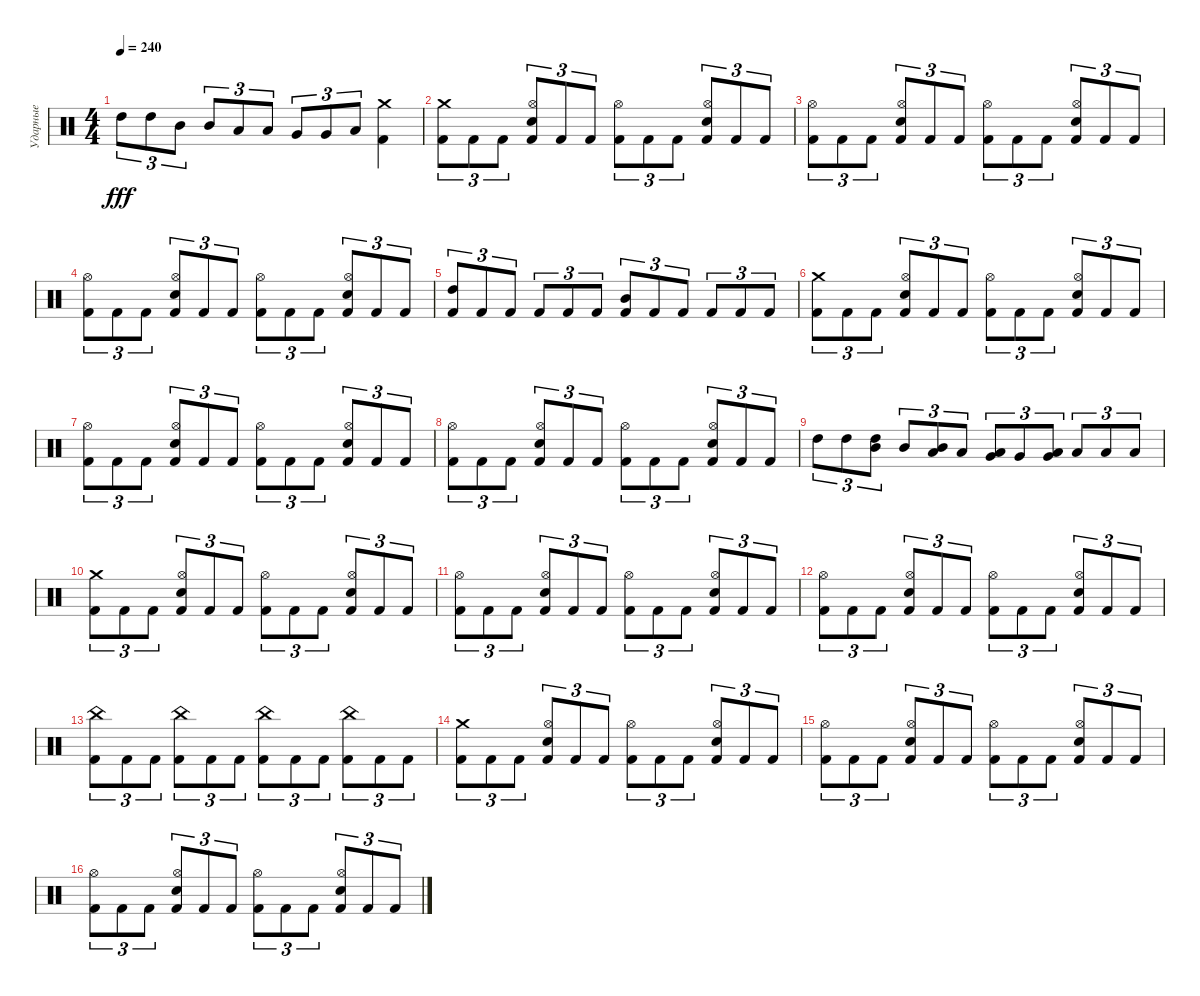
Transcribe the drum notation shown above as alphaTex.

\track ("Ударные" "Ударные") {instrument percussion}
\staff {score}
\articulation defaults
\ts (4 4)
\tempo 240
\clef neutral
\ks aminor "High Tom (hit)".8{tu (3 2) dy fff} "High Tom (hit)".8{tu (3 2)} "Mid Tom (hit)".8{tu (3 2)} "Mid Tom (hit)".8{tu (3 2)} "Low Tom (hit)".8{tu (3 2)} "Low Tom (hit)".8{tu (3 2)} "Very Low Tom (hit)".8{tu (3 2)} "Very Low Tom (hit)".8{tu (3 2)} "Low Floor Tom (hit)".8{tu (3 2)}
("Crash medium (hit)" "Kick (hit) 2").4 |
\ks c
("Crash medium (hit)" "Kick (hit) 2").8{tu (3 2)} "Kick (hit) 2".8{tu (3 2)} "Kick (hit) 2".8{tu (3 2)} ("Hi-Hat (open)" "Electric Snare (hit)" "Kick (hit) 2").8{tu (3 2)} "Kick (hit) 2".8{tu (3 2)} "Kick (hit) 2".8{tu (3 2)} ("Hi-Hat (open)" "Kick (hit) 2").8{tu (3 2)} "Kick (hit) 2".8{tu (3 2)} "Kick (hit) 2".8{tu (3 2)} ("Hi-Hat (open)" "Electric Snare (hit)" "Kick (hit) 2").8{tu (3 2)} "Kick (hit) 2".8{tu (3 2)} "Kick (hit) 2".8{tu (3 2)} |
("Hi-Hat (open)" "Kick (hit) 2").8{tu (3 2)} "Kick (hit) 2".8{tu (3 2)} "Kick (hit) 2".8{tu (3 2)} ("Hi-Hat (open)" "Electric Snare (hit)" "Kick (hit) 2").8{tu (3 2)} "Kick (hit) 2".8{tu (3 2)} "Kick (hit) 2".8{tu (3 2)} ("Hi-Hat (open)" "Kick (hit) 2").8{tu (3 2)} "Kick (hit) 2".8{tu (3 2)} "Kick (hit) 2".8{tu (3 2)} ("Hi-Hat (open)" "Electric Snare (hit)" "Kick (hit) 2").8{tu (3 2)} "Kick (hit) 2".8{tu (3 2)} "Kick (hit) 2".8{tu (3 2)} |
\ks aminor
("Hi-Hat (open)" "Kick (hit) 2").8{tu (3 2)} "Kick (hit) 2".8{tu (3 2)} "Kick (hit) 2".8{tu (3 2)} ("Hi-Hat (open)" "Electric Snare (hit)" "Kick (hit) 2").8{tu (3 2)} "Kick (hit) 2".8{tu (3 2)} "Kick (hit) 2".8{tu (3 2)} ("Hi-Hat (open)" "Kick (hit) 2").8{tu (3 2)} "Kick (hit) 2".8{tu (3 2)} "Kick (hit) 2".8{tu (3 2)} ("Hi-Hat (open)" "Electric Snare (hit)" "Kick (hit) 2").8{tu (3 2)} "Kick (hit) 2".8{tu (3 2)} "Kick (hit) 2".8{tu (3 2)} |
("High Tom (hit)" "Kick (hit) 2").8{tu (3 2)} "Kick (hit) 2".8{tu (3 2)} "Kick (hit) 2".8{tu (3 2)} "Kick (hit) 2".8{tu (3 2)} "Kick (hit) 2".8{tu (3 2)} "Kick (hit) 2".8{tu (3 2)} ("Mid Tom (hit)" "Kick (hit) 2").8{tu (3 2)} "Kick (hit) 2".8{tu (3 2)} "Kick (hit) 2".8{tu (3 2)} "Kick (hit) 2".8{tu (3 2)} "Kick (hit) 2".8{tu (3 2)} "Kick (hit) 2".8{tu (3 2)} |
\ks c
("Crash medium (hit)" "Kick (hit) 2").8{tu (3 2)} "Kick (hit) 2".8{tu (3 2)} "Kick (hit) 2".8{tu (3 2)} ("Hi-Hat (open)" "Electric Snare (hit)" "Kick (hit) 2").8{tu (3 2)} "Kick (hit) 2".8{tu (3 2)} "Kick (hit) 2".8{tu (3 2)} ("Hi-Hat (open)" "Kick (hit) 2").8{tu (3 2)} "Kick (hit) 2".8{tu (3 2)} "Kick (hit) 2".8{tu (3 2)} ("Hi-Hat (open)" "Electric Snare (hit)" "Kick (hit) 2").8{tu (3 2)} "Kick (hit) 2".8{tu (3 2)} "Kick (hit) 2".8{tu (3 2)} |
("Hi-Hat (open)" "Kick (hit) 2").8{tu (3 2)} "Kick (hit) 2".8{tu (3 2)} "Kick (hit) 2".8{tu (3 2)} ("Hi-Hat (open)" "Electric Snare (hit)" "Kick (hit) 2").8{tu (3 2)} "Kick (hit) 2".8{tu (3 2)} "Kick (hit) 2".8{tu (3 2)} ("Hi-Hat (open)" "Kick (hit) 2").8{tu (3 2)} "Kick (hit) 2".8{tu (3 2)} "Kick (hit) 2".8{tu (3 2)} ("Hi-Hat (open)" "Electric Snare (hit)" "Kick (hit) 2").8{tu (3 2)} "Kick (hit) 2".8{tu (3 2)} "Kick (hit) 2".8{tu (3 2)} |
\ks aminor
("Hi-Hat (open)" "Kick (hit) 2").8{tu (3 2)} "Kick (hit) 2".8{tu (3 2)} "Kick (hit) 2".8{tu (3 2)} ("Hi-Hat (open)" "Electric Snare (hit)" "Kick (hit) 2").8{tu (3 2)} "Kick (hit) 2".8{tu (3 2)} "Kick (hit) 2".8{tu (3 2)} ("Hi-Hat (open)" "Kick (hit) 2").8{tu (3 2)} "Kick (hit) 2".8{tu (3 2)} "Kick (hit) 2".8{tu (3 2)} ("Hi-Hat (open)" "Electric Snare (hit)" "Kick (hit) 2").8{tu (3 2)} "Kick (hit) 2".8{tu (3 2)} "Kick (hit) 2".8{tu (3 2)} |
"High Tom (hit)".8{tu (3 2)} "High Tom (hit)".8{tu (3 2)} ("Mid Tom (hit)" "High Tom (hit)").8{tu (3 2)} "Mid Tom (hit)".8{tu (3 2)} ("Low Tom (hit)" "Mid Tom (hit)").8{tu (3 2)} "Low Tom (hit)".8{tu (3 2)} ("Very Low Tom (hit)" "Low Tom (hit)").8{tu (3 2)} "Very Low Tom (hit)".8{tu (3 2)} ("Low Floor Tom (hit)" "Very Low Tom (hit)").8{tu (3 2)} "Low Floor Tom (hit)".8{tu (3 2)} "Low Floor Tom (hit)".8{tu (3 2)} "Low Floor Tom (hit)".8{tu (3 2)} |
\ks c
("Crash medium (hit)" "Kick (hit) 2").8{tu (3 2)} "Kick (hit) 2".8{tu (3 2)} "Kick (hit) 2".8{tu (3 2)} ("Hi-Hat (open)" "Electric Snare (hit)" "Kick (hit) 2").8{tu (3 2)} "Kick (hit) 2".8{tu (3 2)} "Kick (hit) 2".8{tu (3 2)} ("Hi-Hat (open)" "Kick (hit) 2").8{tu (3 2)} "Kick (hit) 2".8{tu (3 2)} "Kick (hit) 2".8{tu (3 2)} ("Hi-Hat (open)" "Electric Snare (hit)" "Kick (hit) 2").8{tu (3 2)} "Kick (hit) 2".8{tu (3 2)} "Kick (hit) 2".8{tu (3 2)} |
("Hi-Hat (open)" "Kick (hit) 2").8{tu (3 2)} "Kick (hit) 2".8{tu (3 2)} "Kick (hit) 2".8{tu (3 2)} ("Hi-Hat (open)" "Electric Snare (hit)" "Kick (hit) 2").8{tu (3 2)} "Kick (hit) 2".8{tu (3 2)} "Kick (hit) 2".8{tu (3 2)} ("Hi-Hat (open)" "Kick (hit) 2").8{tu (3 2)} "Kick (hit) 2".8{tu (3 2)} "Kick (hit) 2".8{tu (3 2)} ("Hi-Hat (open)" "Electric Snare (hit)" "Kick (hit) 2").8{tu (3 2)} "Kick (hit) 2".8{tu (3 2)} "Kick (hit) 2".8{tu (3 2)} |
\ks aminor
("Hi-Hat (open)" "Kick (hit) 2").8{tu (3 2)} "Kick (hit) 2".8{tu (3 2)} "Kick (hit) 2".8{tu (3 2)} ("Hi-Hat (open)" "Electric Snare (hit)" "Kick (hit) 2").8{tu (3 2)} "Kick (hit) 2".8{tu (3 2)} "Kick (hit) 2".8{tu (3 2)} ("Hi-Hat (open)" "Kick (hit) 2").8{tu (3 2)} "Kick (hit) 2".8{tu (3 2)} "Kick (hit) 2".8{tu (3 2)} ("Hi-Hat (open)" "Electric Snare (hit)" "Kick (hit) 2").8{tu (3 2)} "Kick (hit) 2".8{tu (3 2)} "Kick (hit) 2".8{tu (3 2)} |
("China (hit)" "Kick (hit) 2").8{tu (3 2)} "Kick (hit) 2".8{tu (3 2)} "Kick (hit) 2".8{tu (3 2)} ("China (hit)" "Kick (hit) 2").8{tu (3 2)} "Kick (hit) 2".8{tu (3 2)} "Kick (hit) 2".8{tu (3 2)} ("China (hit)" "Kick (hit) 2").8{tu (3 2)} "Kick (hit) 2".8{tu (3 2)} "Kick (hit) 2".8{tu (3 2)} ("China (hit)" "Kick (hit) 2").8{tu (3 2)} "Kick (hit) 2".8{tu (3 2)} "Kick (hit) 2".8{tu (3 2)} |
\ks c
("Crash medium (hit)" "Kick (hit) 2").8{tu (3 2)} "Kick (hit) 2".8{tu (3 2)} "Kick (hit) 2".8{tu (3 2)} ("Hi-Hat (open)" "Electric Snare (hit)" "Kick (hit) 2").8{tu (3 2)} "Kick (hit) 2".8{tu (3 2)} "Kick (hit) 2".8{tu (3 2)} ("Hi-Hat (open)" "Kick (hit) 2").8{tu (3 2)} "Kick (hit) 2".8{tu (3 2)} "Kick (hit) 2".8{tu (3 2)} ("Hi-Hat (open)" "Electric Snare (hit)" "Kick (hit) 2").8{tu (3 2)} "Kick (hit) 2".8{tu (3 2)} "Kick (hit) 2".8{tu (3 2)} |
("Hi-Hat (open)" "Kick (hit) 2").8{tu (3 2)} "Kick (hit) 2".8{tu (3 2)} "Kick (hit) 2".8{tu (3 2)} ("Hi-Hat (open)" "Electric Snare (hit)" "Kick (hit) 2").8{tu (3 2)} "Kick (hit) 2".8{tu (3 2)} "Kick (hit) 2".8{tu (3 2)} ("Hi-Hat (open)" "Kick (hit) 2").8{tu (3 2)} "Kick (hit) 2".8{tu (3 2)} "Kick (hit) 2".8{tu (3 2)} ("Hi-Hat (open)" "Electric Snare (hit)" "Kick (hit) 2").8{tu (3 2)} "Kick (hit) 2".8{tu (3 2)} "Kick (hit) 2".8{tu (3 2)} |
\ks aminor
("Hi-Hat (open)" "Kick (hit) 2").8{tu (3 2)} "Kick (hit) 2".8{tu (3 2)} "Kick (hit) 2".8{tu (3 2)} ("Hi-Hat (open)" "Electric Snare (hit)" "Kick (hit) 2").8{tu (3 2)} "Kick (hit) 2".8{tu (3 2)} "Kick (hit) 2".8{tu (3 2)} ("Hi-Hat (open)" "Kick (hit) 2").8{tu (3 2)} "Kick (hit) 2".8{tu (3 2)} "Kick (hit) 2".8{tu (3 2)} ("Hi-Hat (open)" "Electric Snare (hit)" "Kick (hit) 2").8{tu (3 2)} "Kick (hit) 2".8{tu (3 2)} "Kick (hit) 2".8{tu (3 2)}
